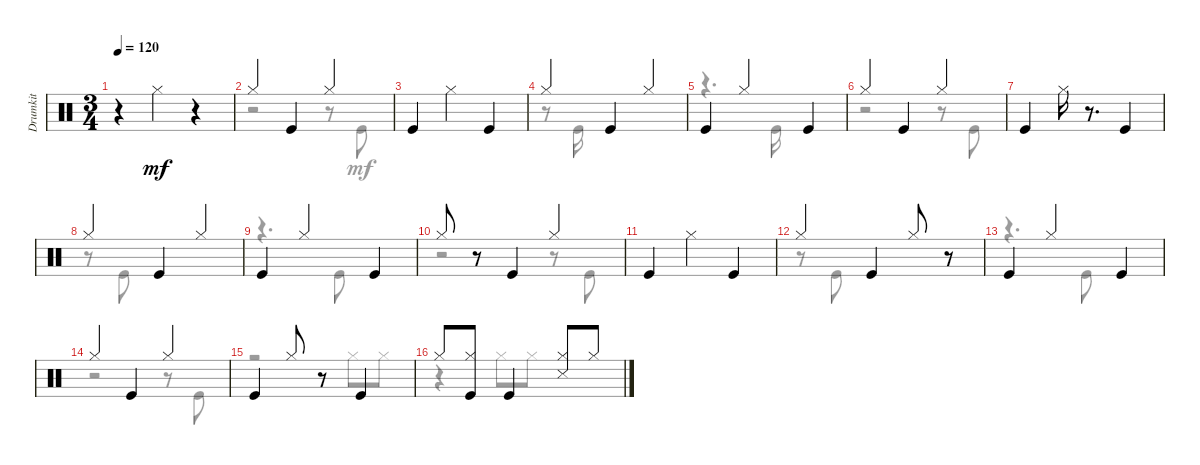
\track ("Drumkit" "Drumkit") {instrument percussion}
\staff {score}
\articulation defaults
\voice
\ts (3 4)
\tempo 120
\clef neutral
\ks aminor
r.4{dy mf} "Hi-Hat (closed)".4 r.4 |
"Hi-Hat (closed)".4 "Kick (hit)".4 "Hi-Hat (closed)".4 |
"Kick (hit)".4 "Hi-Hat (closed)".4 "Kick (hit)".4 |
"Hi-Hat (closed)".4 "Kick (hit)".4 "Hi-Hat (closed)".4 |
"Kick (hit)".4 "Hi-Hat (closed)".4 "Kick (hit)".4 |
"Hi-Hat (closed)".4 "Kick (hit)".4 "Hi-Hat (closed)".4 |
"Kick (hit)".4 "Hi-Hat (closed)".16 r.8{d} "Kick (hit)".4 |
"Hi-Hat (closed)".4 "Kick (hit)".4 "Hi-Hat (closed)".4 |
"Kick (hit)".4 "Hi-Hat (closed)".4 "Kick (hit)".4 |
"Hi-Hat (closed)".8 r.8 "Kick (hit)".4 "Hi-Hat (closed)".4 |
"Kick (hit)".4 "Hi-Hat (closed)".4 "Kick (hit)".4 |
"Hi-Hat (closed)".4 "Kick (hit)".4 "Hi-Hat (closed)".8 r.8 |
"Kick (hit)".4 "Hi-Hat (closed)".4 "Kick (hit)".4 |
"Hi-Hat (closed)".4 "Kick (hit)".4 "Hi-Hat (closed)".4 |
"Kick (hit)".4 "Hi-Hat (closed)".8 r.8 "Kick (hit)".4 |
"Hi-Hat (closed)".8 ("Kick (hit)" "Hi-Hat (closed)").8 "Kick (hit)".4 ("Snare (side stick) 3" "Hi-Hat (closed)").8 "Hi-Hat (closed)".8
\voice
\clef neutral
\ottava regular
\simile none
\ks aminor
|
r.2 r.8 "Kick (hit)".8 |
|
r.8 "Kick (hit)".16 |
r.4{d} "Kick (hit)".16 |
r.2 r.8 "Kick (hit)".8 |
|
r.8 "Kick (hit)".8 |
r.4{d} "Kick (hit)".8 |
r.2 r.8 "Kick (hit)".8 |
|
r.8 "Kick (hit)".8 |
r.4{d} "Kick (hit)".8 |
r.2 r.8 "Kick (hit)".8 |
r.2 "Hi-Hat (closed)".8 "Hi-Hat (closed)".8 |
r.4 "Hi-Hat (closed)".8 "Hi-Hat (closed)".8
